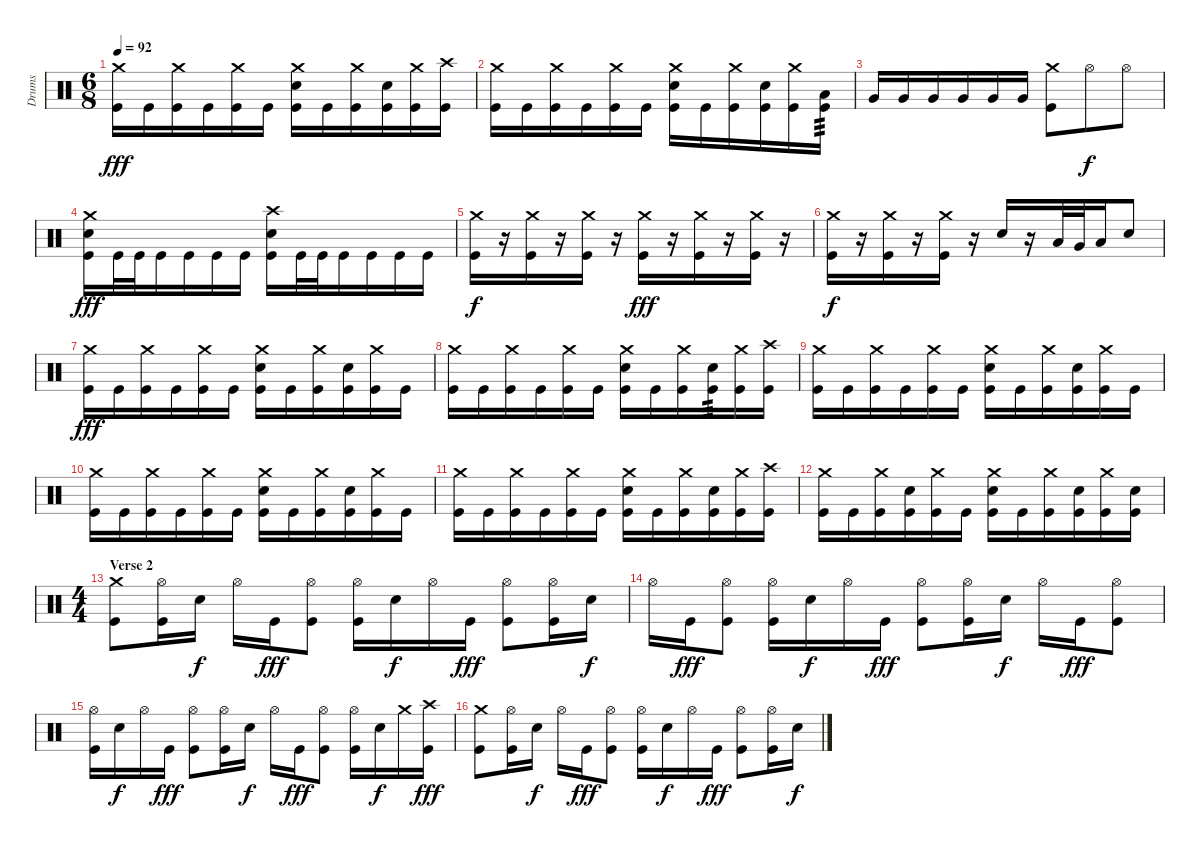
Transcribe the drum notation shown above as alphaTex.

\track ("Drums" "Drums") {instrument percussion}
\staff {score}
\articulation defaults
\ts (6 8)
\tempo 92
\clef neutral
\ks c
("Crash medium (hit)" "Kick (hit)").16{dy fff} "Kick (hit)".16 ("Crash medium (hit)" "Kick (hit)").16 "Kick (hit)".16 ("Crash medium (hit)" "Kick (hit)").16 "Kick (hit)".16 ("Crash medium (hit)" "Snare (hit) 2" "Kick (hit)").16 "Kick (hit)".16 ("Crash medium (hit)" "Kick (hit)").16 ("Snare (hit) 2" "Kick (hit)").16 ("Crash medium (hit)" "Kick (hit)").16 ("Crash high (hit)" "Kick (hit)").16 |
("Crash medium (hit)" "Kick (hit)").16 "Kick (hit)".16 ("Crash medium (hit)" "Kick (hit)").16 "Kick (hit)".16 ("Crash medium (hit)" "Kick (hit)").16 "Kick (hit)".16 ("Crash medium (hit)" "Snare (hit) 2" "Kick (hit)").16 "Kick (hit)".16 ("Crash medium (hit)" "Kick (hit)").16 ("Snare (hit) 2" "Kick (hit)").16 ("Crash medium (hit)" "Kick (hit)").16 ("Low Tom (hit)" "Kick (hit)").16{tp 3} |
"Very Low Tom (hit)".16 "Very Low Tom (hit)".16 "Very Low Tom (hit)".16 "Very Low Tom (hit)".16 "Very Low Tom (hit)".16 "Very Low Tom (hit)".16 ("Crash medium (hit)" "Kick (hit)").8 "Hi-Hat (open)".8{dy f} "Hi-Hat (open)".8 |
("Crash medium (hit)" "Snare (hit) 2" "Kick (hit)").16{dy fff} "Kick (hit)".32 "Kick (hit)".32 "Kick (hit)".16 "Kick (hit)".16 "Kick (hit)".16 "Kick (hit)".16 ("Crash high (hit)" "Snare (hit) 2" "Kick (hit)").16 "Kick (hit)".32 "Kick (hit)".32 "Kick (hit)".16 "Kick (hit)".16 "Kick (hit)".16 "Kick (hit)".16 |
("Crash medium (hit)" "Kick (hit)").16{dy f} r.16 ("Crash medium (hit)" "Kick (hit)").16 r.16 ("Crash medium (hit)" "Kick (hit)").16 r.16 ("Crash medium (hit)" "Kick (hit)").16{dy fff} r.16 ("Crash medium (hit)" "Kick (hit)").16 r.16 ("Crash medium (hit)" "Kick (hit)").16 r.16 |
("Crash medium (hit)" "Kick (hit)").16{dy f} r.16 ("Crash medium (hit)" "Kick (hit)").16 r.16 ("Crash medium (hit)" "Kick (hit)").16 r.16 "Snare (hit) 2".16 r.16 "Low Tom (hit)".32 "Very Low Tom (hit)".32 "Low Floor Tom (hit)".16 "Snare (hit) 2".8 |
("Crash medium (hit)" "Kick (hit)").16{dy fff} "Kick (hit)".16 ("Crash medium (hit)" "Kick (hit)").16 "Kick (hit)".16 ("Crash medium (hit)" "Kick (hit)").16 "Kick (hit)".16 ("Crash medium (hit)" "Snare (hit) 2" "Kick (hit)").16 "Kick (hit)".16 ("Crash medium (hit)" "Kick (hit)").16 ("Snare (hit) 2" "Kick (hit)").16 ("Crash medium (hit)" "Kick (hit)").16 "Kick (hit)".16 |
("Crash medium (hit)" "Kick (hit)").16 "Kick (hit)".16 ("Crash medium (hit)" "Kick (hit)").16 "Kick (hit)".16 ("Crash medium (hit)" "Kick (hit)").16 "Kick (hit)".16 ("Crash medium (hit)" "Snare (hit) 2" "Kick (hit)").16 "Kick (hit)".16 ("Crash medium (hit)" "Kick (hit)").16 ("Snare (hit) 2" "Kick (hit)").16{tp 3} ("Crash medium (hit)" "Kick (hit)").16 ("Crash high (hit)" "Kick (hit)").16 |
("Crash medium (hit)" "Kick (hit)").16 "Kick (hit)".16 ("Crash medium (hit)" "Kick (hit)").16 "Kick (hit)".16 ("Crash medium (hit)" "Kick (hit)").16 "Kick (hit)".16 ("Crash medium (hit)" "Snare (hit) 2" "Kick (hit)").16 "Kick (hit)".16 ("Crash medium (hit)" "Kick (hit)").16 ("Snare (hit) 2" "Kick (hit)").16 ("Crash medium (hit)" "Kick (hit)").16 "Kick (hit)".16 |
("Crash medium (hit)" "Kick (hit)").16 "Kick (hit)".16 ("Crash medium (hit)" "Kick (hit)").16 "Kick (hit)".16 ("Crash medium (hit)" "Kick (hit)").16 "Kick (hit)".16 ("Crash medium (hit)" "Snare (hit) 2" "Kick (hit)").16 "Kick (hit)".16 ("Crash medium (hit)" "Kick (hit)").16 ("Snare (hit) 2" "Kick (hit)").16 ("Crash medium (hit)" "Kick (hit)").16 "Kick (hit)".16 |
("Crash medium (hit)" "Kick (hit)").16 "Kick (hit)".16 ("Crash medium (hit)" "Kick (hit)").16 "Kick (hit)".16 ("Crash medium (hit)" "Kick (hit)").16 "Kick (hit)".16 ("Crash medium (hit)" "Snare (hit) 2" "Kick (hit)").16 "Kick (hit)".16 ("Crash medium (hit)" "Kick (hit)").16 ("Snare (hit) 2" "Kick (hit)").16 ("Crash medium (hit)" "Kick (hit)").16 ("Crash high (hit)" "Kick (hit)").16 |
("Crash medium (hit)" "Kick (hit)").16 "Kick (hit)".16 ("Crash medium (hit)" "Kick (hit)").16 ("Snare (hit) 2" "Kick (hit)").16 ("Crash medium (hit)" "Kick (hit)").16 "Kick (hit)".16 ("Crash medium (hit)" "Snare (hit) 2" "Kick (hit)").16 "Kick (hit)".16 ("Crash medium (hit)" "Kick (hit)").16 ("Snare (hit) 2" "Kick (hit)").16 ("Crash medium (hit)" "Kick (hit)").16 ("Snare (hit) 2" "Kick (hit)").16 |
\ts (4 4)
\section ("" "Verse 2")
("Crash medium (hit)" "Kick (hit)").8 ("Hi-Hat (open)" "Kick (hit)").16 "Snare (hit) 2".16{dy f} "Hi-Hat (open)".16 "Kick (hit)".16{dy fff} ("Hi-Hat (open)" "Kick (hit)").8 ("Hi-Hat (open)" "Kick (hit)").16 "Snare (hit) 2".16{dy f} "Hi-Hat (open)".16 "Kick (hit)".16{dy fff} ("Hi-Hat (open)" "Kick (hit)").8 ("Hi-Hat (open)" "Kick (hit)").16 "Snare (hit) 2".16{dy f} |
"Hi-Hat (open)".16 "Kick (hit)".16{dy fff} ("Hi-Hat (open)" "Kick (hit)").8 ("Hi-Hat (open)" "Kick (hit)").16 "Snare (hit) 2".16{dy f} "Hi-Hat (open)".16 "Kick (hit)".16{dy fff} ("Hi-Hat (open)" "Kick (hit)").8 ("Hi-Hat (open)" "Kick (hit)").16 "Snare (hit) 2".16{dy f} "Hi-Hat (open)".16 "Kick (hit)".16{dy fff} ("Hi-Hat (open)" "Kick (hit)").8 |
("Hi-Hat (open)" "Kick (hit)").16 "Snare (hit) 2".16{dy f} "Hi-Hat (open)".16 "Kick (hit)".16{dy fff} ("Hi-Hat (open)" "Kick (hit)").8 ("Hi-Hat (open)" "Kick (hit)").16 "Snare (hit) 2".16{dy f} "Hi-Hat (open)".16 "Kick (hit)".16{dy fff} ("Hi-Hat (open)" "Kick (hit)").8 ("Hi-Hat (open)" "Kick (hit)").16 "Snare (hit) 2".16{dy f} "Crash medium (hit)".16 ("Crash high (hit)" "Kick (hit)").16{dy fff} |
("Crash medium (hit)" "Kick (hit)").8 ("Hi-Hat (open)" "Kick (hit)").16 "Snare (hit) 2".16{dy f} "Hi-Hat (open)".16 "Kick (hit)".16{dy fff} ("Hi-Hat (open)" "Kick (hit)").8 ("Hi-Hat (open)" "Kick (hit)").16 "Snare (hit) 2".16{dy f} "Hi-Hat (open)".16 "Kick (hit)".16{dy fff} ("Hi-Hat (open)" "Kick (hit)").8 ("Hi-Hat (open)" "Kick (hit)").16 "Snare (hit) 2".16{dy f}
